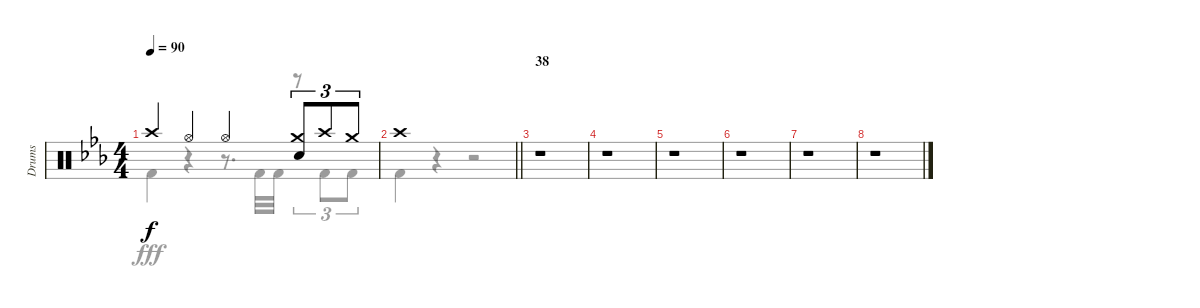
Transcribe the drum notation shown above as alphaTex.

\track ("Drums" "Drums") {instrument percussion}
\staff {score}
\articulation defaults
\voice
\ts (4 4)
\tempo 90
\clef neutral
\ks eb "Crash high (hit)".4{dy f} "Hi-Hat (open)".4 "Hi-Hat (open)".4
("Crash medium (hit)" "Snare (hit) 2").8{tu (3 2)} "Crash high (hit)".8{tu (3 2)} "Crash medium (hit)".8{tu (3 2)} |
\barLineRight lightlight "Crash high (hit)".1
|
\section ("" "38")
r.1 |
r.1 |
r.1 |
r.1 |
r.1 |
r.1
\voice
\clef neutral
\ottava regular
\simile none
\ks eb "Kick (hit) 2".4{dy fff}
r.4 r.8{d} "Kick (hit) 2".32 "Kick (hit) 2".32 r.8{tu (3 2)} "Kick (hit) 2".8{tu (3 2)} "Kick (hit) 2".8{tu (3 2)} |
\barLineRight lightlight "Kick (hit) 2".4
r.4 r.2 |
r.1 |
r.1 |
r.1 |
r.1 |
r.1 |
r.1
